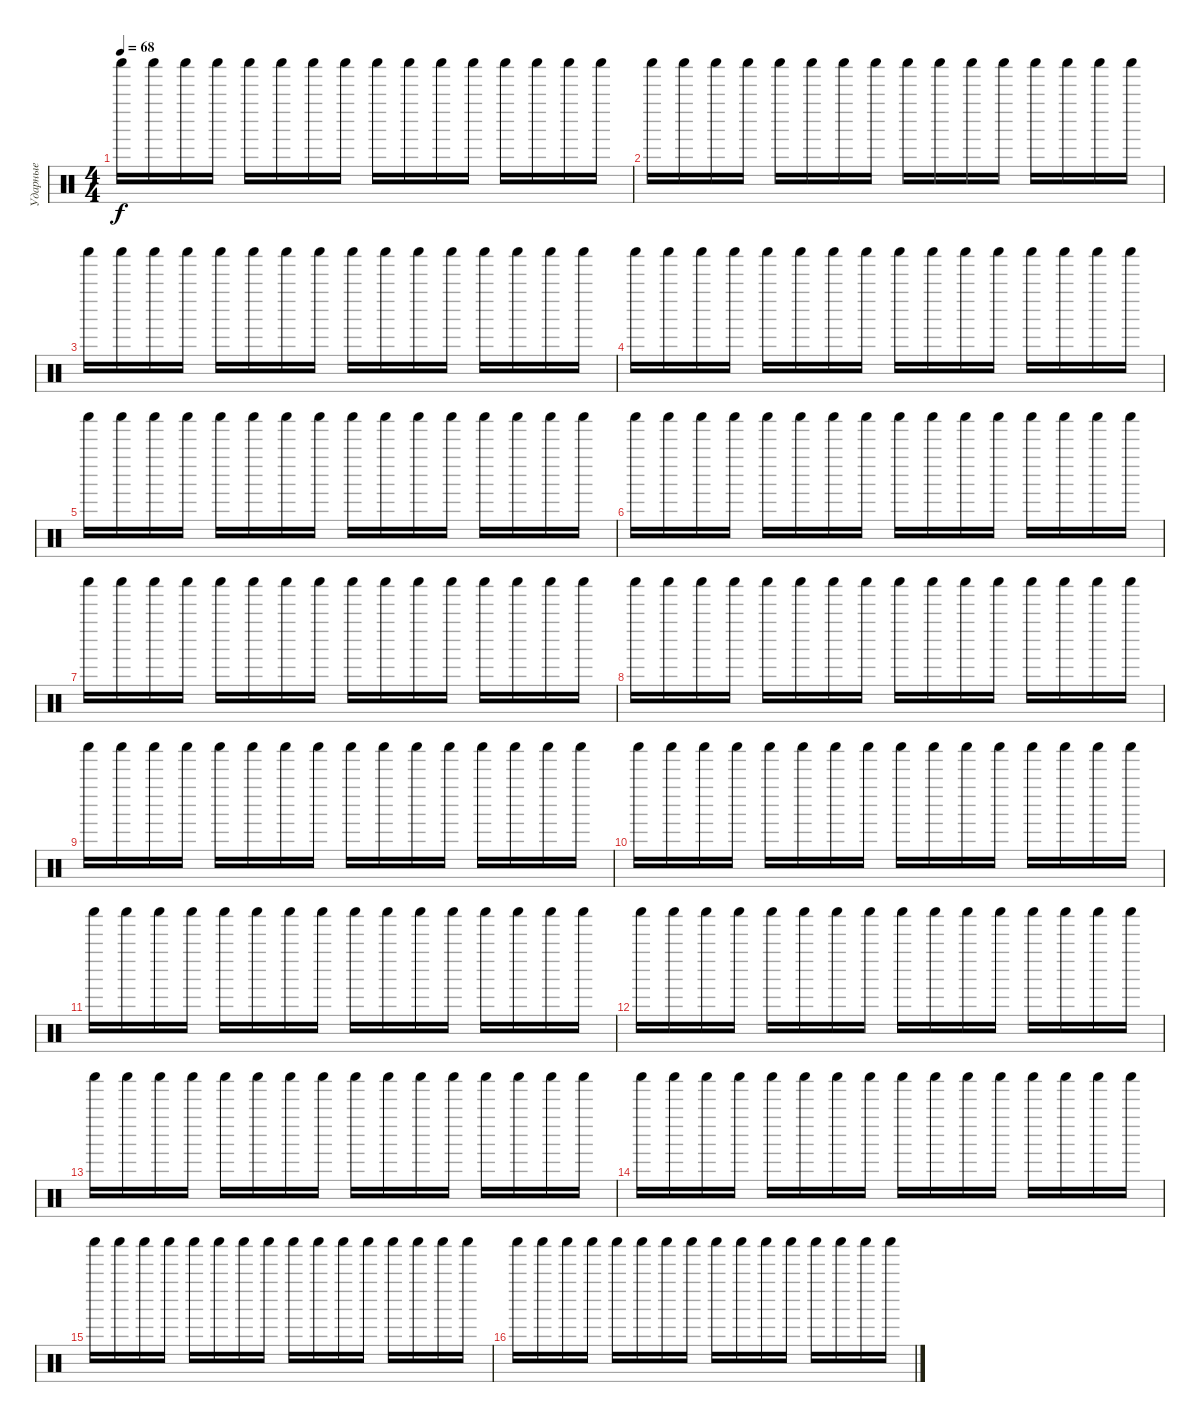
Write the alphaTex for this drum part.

\track ("Ударные" "Ударные") {instrument percussion}
\staff {score}
\articulation defaults
\ts (4 4)
\tempo 68
\clef neutral
\ks c "Shaker (hit)".16{dy f} "Shaker (hit)".16 "Shaker (hit)".16 "Shaker (hit)".16 "Shaker (hit)".16 "Shaker (hit)".16 "Shaker (hit)".16 "Shaker (hit)".16 "Shaker (hit)".16 "Shaker (hit)".16 "Shaker (hit)".16 "Shaker (hit)".16 "Shaker (hit)".16 "Shaker (hit)".16 "Shaker (hit)".16 "Shaker (hit)".16
|
"Shaker (hit)".16 "Shaker (hit)".16 "Shaker (hit)".16 "Shaker (hit)".16 "Shaker (hit)".16 "Shaker (hit)".16 "Shaker (hit)".16 "Shaker (hit)".16 "Shaker (hit)".16 "Shaker (hit)".16 "Shaker (hit)".16 "Shaker (hit)".16 "Shaker (hit)".16 "Shaker (hit)".16 "Shaker (hit)".16 "Shaker (hit)".16 |
"Shaker (hit)".16 "Shaker (hit)".16 "Shaker (hit)".16 "Shaker (hit)".16 "Shaker (hit)".16 "Shaker (hit)".16 "Shaker (hit)".16 "Shaker (hit)".16 "Shaker (hit)".16 "Shaker (hit)".16 "Shaker (hit)".16 "Shaker (hit)".16 "Shaker (hit)".16 "Shaker (hit)".16 "Shaker (hit)".16 "Shaker (hit)".16 |
"Shaker (hit)".16 "Shaker (hit)".16 "Shaker (hit)".16 "Shaker (hit)".16 "Shaker (hit)".16 "Shaker (hit)".16 "Shaker (hit)".16 "Shaker (hit)".16 "Shaker (hit)".16 "Shaker (hit)".16 "Shaker (hit)".16 "Shaker (hit)".16 "Shaker (hit)".16 "Shaker (hit)".16 "Shaker (hit)".16 "Shaker (hit)".16 |
"Shaker (hit)".16 "Shaker (hit)".16 "Shaker (hit)".16 "Shaker (hit)".16 "Shaker (hit)".16 "Shaker (hit)".16 "Shaker (hit)".16 "Shaker (hit)".16 "Shaker (hit)".16 "Shaker (hit)".16 "Shaker (hit)".16 "Shaker (hit)".16 "Shaker (hit)".16 "Shaker (hit)".16 "Shaker (hit)".16 "Shaker (hit)".16 |
"Shaker (hit)".16 "Shaker (hit)".16 "Shaker (hit)".16 "Shaker (hit)".16 "Shaker (hit)".16 "Shaker (hit)".16 "Shaker (hit)".16 "Shaker (hit)".16 "Shaker (hit)".16 "Shaker (hit)".16 "Shaker (hit)".16 "Shaker (hit)".16 "Shaker (hit)".16 "Shaker (hit)".16 "Shaker (hit)".16 "Shaker (hit)".16 |
"Shaker (hit)".16 "Shaker (hit)".16 "Shaker (hit)".16 "Shaker (hit)".16 "Shaker (hit)".16 "Shaker (hit)".16 "Shaker (hit)".16 "Shaker (hit)".16 "Shaker (hit)".16 "Shaker (hit)".16 "Shaker (hit)".16 "Shaker (hit)".16 "Shaker (hit)".16 "Shaker (hit)".16 "Shaker (hit)".16 "Shaker (hit)".16 |
"Shaker (hit)".16 "Shaker (hit)".16 "Shaker (hit)".16 "Shaker (hit)".16 "Shaker (hit)".16 "Shaker (hit)".16 "Shaker (hit)".16 "Shaker (hit)".16 "Shaker (hit)".16 "Shaker (hit)".16 "Shaker (hit)".16 "Shaker (hit)".16 "Shaker (hit)".16 "Shaker (hit)".16 "Shaker (hit)".16 "Shaker (hit)".16 |
"Shaker (hit)".16 "Shaker (hit)".16 "Shaker (hit)".16 "Shaker (hit)".16 "Shaker (hit)".16 "Shaker (hit)".16 "Shaker (hit)".16 "Shaker (hit)".16 "Shaker (hit)".16 "Shaker (hit)".16 "Shaker (hit)".16 "Shaker (hit)".16 "Shaker (hit)".16 "Shaker (hit)".16 "Shaker (hit)".16 "Shaker (hit)".16 |
"Shaker (hit)".16 "Shaker (hit)".16 "Shaker (hit)".16 "Shaker (hit)".16 "Shaker (hit)".16 "Shaker (hit)".16 "Shaker (hit)".16 "Shaker (hit)".16 "Shaker (hit)".16 "Shaker (hit)".16 "Shaker (hit)".16 "Shaker (hit)".16 "Shaker (hit)".16 "Shaker (hit)".16 "Shaker (hit)".16 "Shaker (hit)".16 |
"Shaker (hit)".16 "Shaker (hit)".16 "Shaker (hit)".16 "Shaker (hit)".16 "Shaker (hit)".16 "Shaker (hit)".16 "Shaker (hit)".16 "Shaker (hit)".16 "Shaker (hit)".16 "Shaker (hit)".16 "Shaker (hit)".16 "Shaker (hit)".16 "Shaker (hit)".16 "Shaker (hit)".16 "Shaker (hit)".16 "Shaker (hit)".16 |
"Shaker (hit)".16 "Shaker (hit)".16 "Shaker (hit)".16 "Shaker (hit)".16 "Shaker (hit)".16 "Shaker (hit)".16 "Shaker (hit)".16 "Shaker (hit)".16 "Shaker (hit)".16 "Shaker (hit)".16 "Shaker (hit)".16 "Shaker (hit)".16 "Shaker (hit)".16 "Shaker (hit)".16 "Shaker (hit)".16 "Shaker (hit)".16 |
"Shaker (hit)".16 "Shaker (hit)".16 "Shaker (hit)".16 "Shaker (hit)".16 "Shaker (hit)".16 "Shaker (hit)".16 "Shaker (hit)".16 "Shaker (hit)".16 "Shaker (hit)".16 "Shaker (hit)".16 "Shaker (hit)".16 "Shaker (hit)".16 "Shaker (hit)".16 "Shaker (hit)".16 "Shaker (hit)".16 "Shaker (hit)".16 |
"Shaker (hit)".16 "Shaker (hit)".16 "Shaker (hit)".16 "Shaker (hit)".16 "Shaker (hit)".16 "Shaker (hit)".16 "Shaker (hit)".16 "Shaker (hit)".16 "Shaker (hit)".16 "Shaker (hit)".16 "Shaker (hit)".16 "Shaker (hit)".16 "Shaker (hit)".16 "Shaker (hit)".16 "Shaker (hit)".16 "Shaker (hit)".16 |
"Shaker (hit)".16 "Shaker (hit)".16 "Shaker (hit)".16 "Shaker (hit)".16 "Shaker (hit)".16 "Shaker (hit)".16 "Shaker (hit)".16 "Shaker (hit)".16 "Shaker (hit)".16 "Shaker (hit)".16 "Shaker (hit)".16 "Shaker (hit)".16 "Shaker (hit)".16 "Shaker (hit)".16 "Shaker (hit)".16 "Shaker (hit)".16 |
"Shaker (hit)".16 "Shaker (hit)".16 "Shaker (hit)".16 "Shaker (hit)".16 "Shaker (hit)".16 "Shaker (hit)".16 "Shaker (hit)".16 "Shaker (hit)".16 "Shaker (hit)".16 "Shaker (hit)".16 "Shaker (hit)".16 "Shaker (hit)".16 "Shaker (hit)".16 "Shaker (hit)".16 "Shaker (hit)".16 "Shaker (hit)".16
